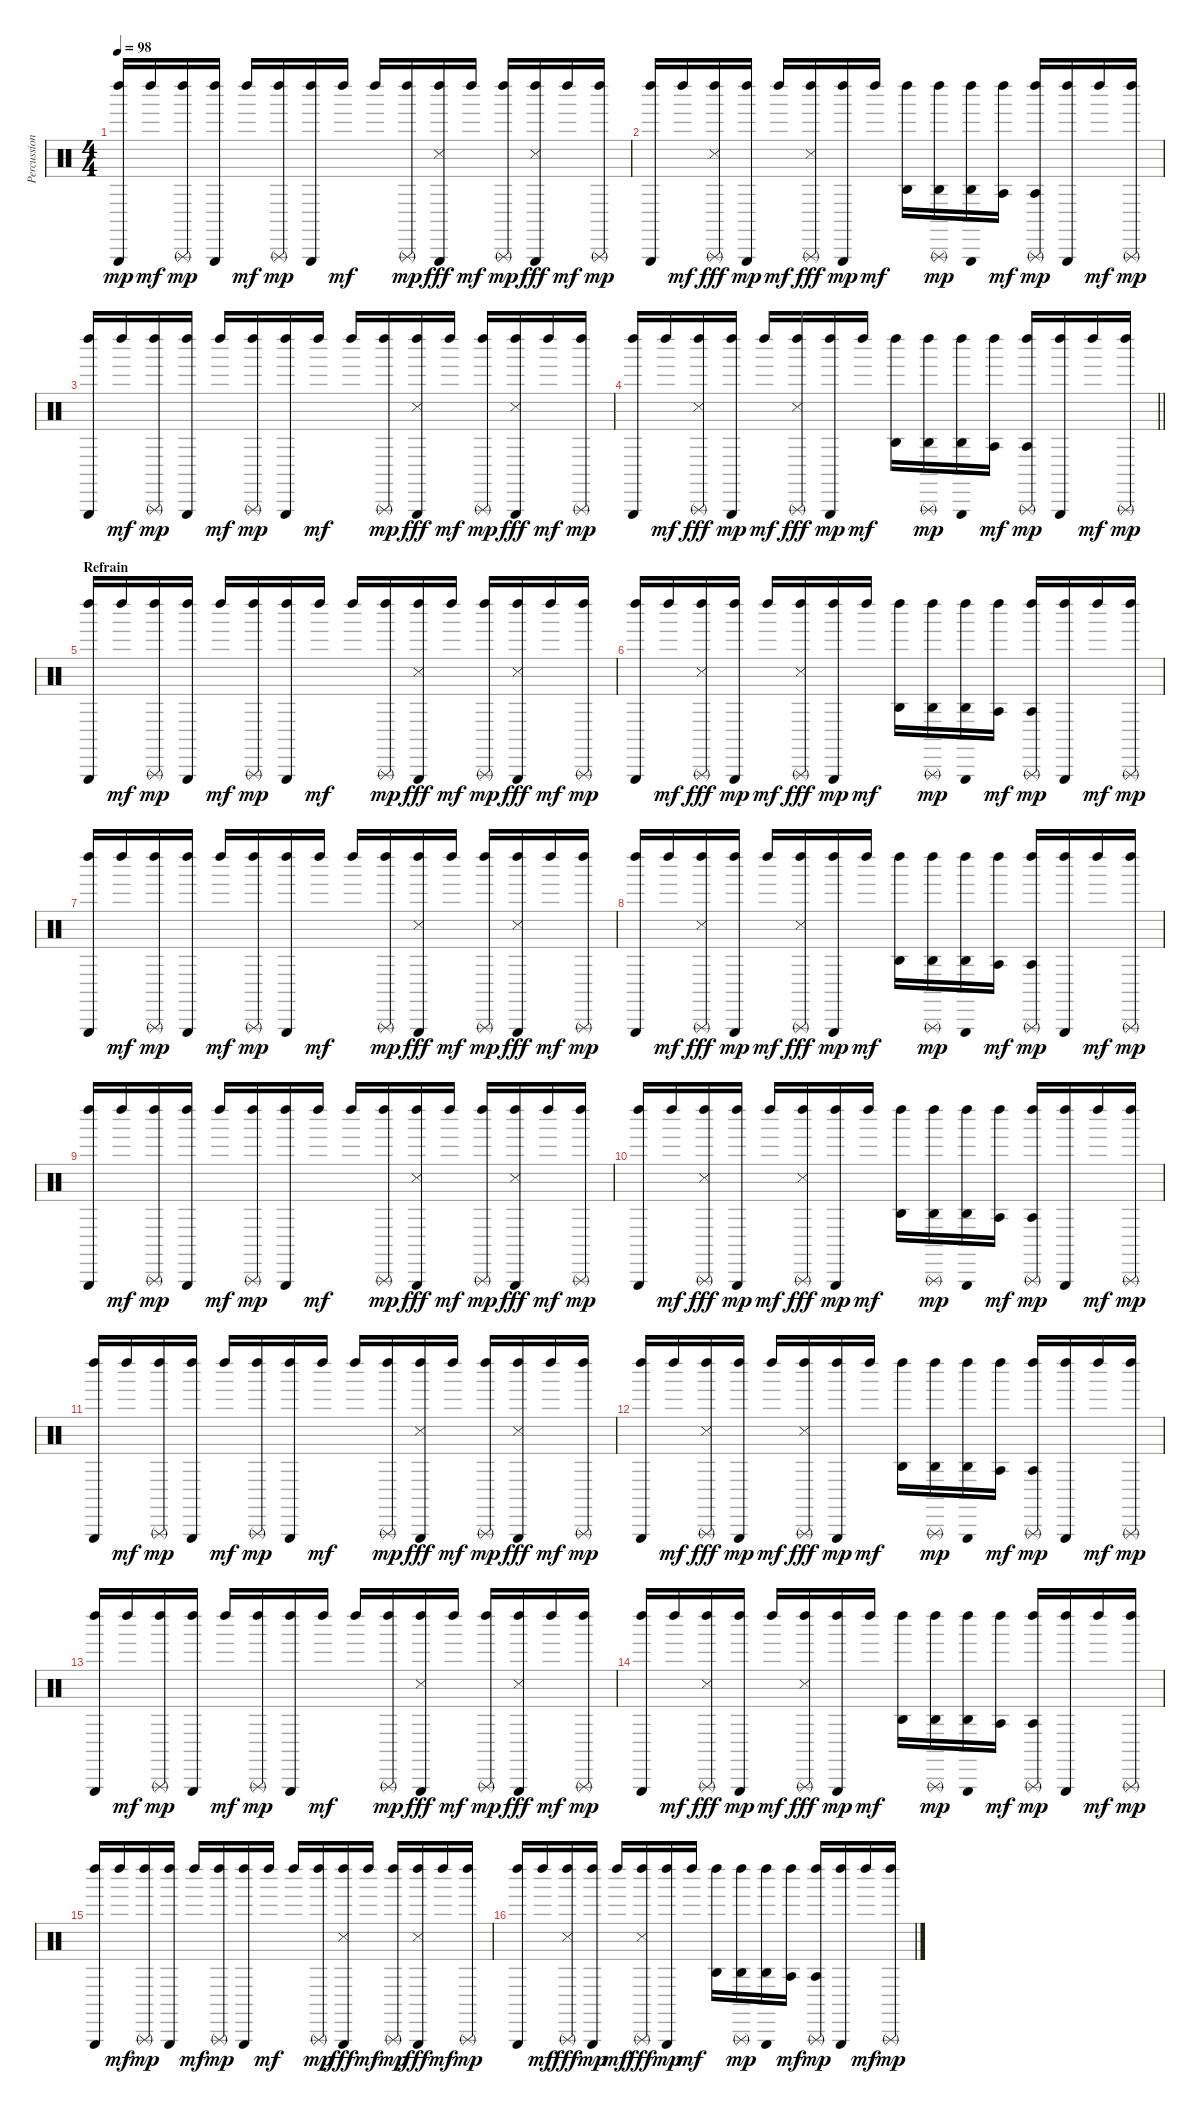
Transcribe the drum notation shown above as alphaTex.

\track ("Percussions (Dr-0)" "Percussion") {instrument percussion}
\staff {score}
\articulation defaults
\ts (4 4)
\tempo 98
\clef neutral
\ks c
("Left Maraca (hit)" "Triangle (hit)").16{dy mp} "Left Maraca (hit)".16{dy mf} ("Left Maraca (hit)" "Triangle (rnute)").16{dy mp} ("Left Maraca (hit)" "Triangle (hit)").16 "Left Maraca (hit)".16{dy mf} ("Left Maraca (hit)" "Triangle (rnute)").16{dy mp} ("Left Maraca (hit)" "Triangle (hit)").16 "Left Maraca (hit)".16{dy mf} "Left Maraca (hit)".16 ("Left Maraca (hit)" "Triangle (rnute)").16{dy mp} ("Left Maraca (hit)" "Triangle (hit)" "Snare (side stick) 3").16{dy fff} "Left Maraca (hit)".16{dy mf} ("Left Maraca (hit)" "Triangle (rnute)").16{dy mp} ("Left Maraca (hit)" "Triangle (hit)" "Snare (side stick) 3").16{dy fff} "Left Maraca (hit)".16{dy mf} ("Left Maraca (hit)" "Triangle (rnute)").16{dy mp} |
("Left Maraca (hit)" "Triangle (hit)").16 "Left Maraca (hit)".16{dy mf} ("Left Maraca (hit)" "Triangle (rnute)" "Snare (side stick) 3").16{dy fff} ("Left Maraca (hit)" "Triangle (hit)").16{dy mp} "Left Maraca (hit)".16{dy mf} ("Left Maraca (hit)" "Triangle (rnute)" "Snare (side stick) 3").16{dy fff} ("Left Maraca (hit)" "Triangle (hit)").16{dy mp} "Left Maraca (hit)".16{dy mf} ("Left Maraca (hit)" "Agogo high (hit)").16 ("Left Maraca (hit)" "Triangle (rnute)" "Agogo high (hit)").16{dy mp} ("Left Maraca (hit)" "Triangle (hit)" "Agogo high (hit)").16 ("Left Maraca (hit)" "Agogo tow (hit)").16{dy mf} ("Left Maraca (hit)" "Triangle (rnute)" "Agogo tow (hit)").16{dy mp} ("Left Maraca (hit)" "Triangle (hit)").16 "Left Maraca (hit)".16{dy mf} ("Left Maraca (hit)" "Triangle (rnute)").16{dy mp} |
("Left Maraca (hit)" "Triangle (hit)").16 "Left Maraca (hit)".16{dy mf} ("Left Maraca (hit)" "Triangle (rnute)").16{dy mp} ("Left Maraca (hit)" "Triangle (hit)").16 "Left Maraca (hit)".16{dy mf} ("Left Maraca (hit)" "Triangle (rnute)").16{dy mp} ("Left Maraca (hit)" "Triangle (hit)").16 "Left Maraca (hit)".16{dy mf} "Left Maraca (hit)".16 ("Left Maraca (hit)" "Triangle (rnute)").16{dy mp} ("Left Maraca (hit)" "Triangle (hit)" "Snare (side stick) 3").16{dy fff} "Left Maraca (hit)".16{dy mf} ("Left Maraca (hit)" "Triangle (rnute)").16{dy mp} ("Left Maraca (hit)" "Triangle (hit)" "Snare (side stick) 3").16{dy fff} "Left Maraca (hit)".16{dy mf} ("Left Maraca (hit)" "Triangle (rnute)").16{dy mp} |
\barLineRight lightlight
("Left Maraca (hit)" "Triangle (hit)").16 "Left Maraca (hit)".16{dy mf} ("Left Maraca (hit)" "Triangle (rnute)" "Snare (side stick) 3").16{dy fff} ("Left Maraca (hit)" "Triangle (hit)").16{dy mp} "Left Maraca (hit)".16{dy mf} ("Left Maraca (hit)" "Triangle (rnute)" "Snare (side stick) 3").16{dy fff} ("Left Maraca (hit)" "Triangle (hit)").16{dy mp} "Left Maraca (hit)".16{dy mf} ("Left Maraca (hit)" "Agogo high (hit)").16 ("Left Maraca (hit)" "Triangle (rnute)" "Agogo high (hit)").16{dy mp} ("Left Maraca (hit)" "Triangle (hit)" "Agogo high (hit)").16 ("Left Maraca (hit)" "Agogo tow (hit)").16{dy mf} ("Left Maraca (hit)" "Triangle (rnute)" "Agogo tow (hit)").16{dy mp} ("Left Maraca (hit)" "Triangle (hit)").16 "Left Maraca (hit)".16{dy mf} ("Left Maraca (hit)" "Triangle (rnute)").16{dy mp} |
\section ("" "Refrain")
("Left Maraca (hit)" "Triangle (hit)").16 "Left Maraca (hit)".16{dy mf} ("Left Maraca (hit)" "Triangle (rnute)").16{dy mp} ("Left Maraca (hit)" "Triangle (hit)").16 "Left Maraca (hit)".16{dy mf} ("Left Maraca (hit)" "Triangle (rnute)").16{dy mp} ("Left Maraca (hit)" "Triangle (hit)").16 "Left Maraca (hit)".16{dy mf} "Left Maraca (hit)".16 ("Left Maraca (hit)" "Triangle (rnute)").16{dy mp} ("Left Maraca (hit)" "Triangle (hit)" "Snare (side stick) 3").16{dy fff} "Left Maraca (hit)".16{dy mf} ("Left Maraca (hit)" "Triangle (rnute)").16{dy mp} ("Left Maraca (hit)" "Triangle (hit)" "Snare (side stick) 3").16{dy fff} "Left Maraca (hit)".16{dy mf} ("Left Maraca (hit)" "Triangle (rnute)").16{dy mp} |
("Left Maraca (hit)" "Triangle (hit)").16 "Left Maraca (hit)".16{dy mf} ("Left Maraca (hit)" "Triangle (rnute)" "Snare (side stick) 3").16{dy fff} ("Left Maraca (hit)" "Triangle (hit)").16{dy mp} "Left Maraca (hit)".16{dy mf} ("Left Maraca (hit)" "Triangle (rnute)" "Snare (side stick) 3").16{dy fff} ("Left Maraca (hit)" "Triangle (hit)").16{dy mp} "Left Maraca (hit)".16{dy mf} ("Left Maraca (hit)" "Agogo high (hit)").16 ("Left Maraca (hit)" "Triangle (rnute)" "Agogo high (hit)").16{dy mp} ("Left Maraca (hit)" "Triangle (hit)" "Agogo high (hit)").16 ("Left Maraca (hit)" "Agogo tow (hit)").16{dy mf} ("Left Maraca (hit)" "Triangle (rnute)" "Agogo tow (hit)").16{dy mp} ("Left Maraca (hit)" "Triangle (hit)").16 "Left Maraca (hit)".16{dy mf} ("Left Maraca (hit)" "Triangle (rnute)").16{dy mp} |
("Left Maraca (hit)" "Triangle (hit)").16 "Left Maraca (hit)".16{dy mf} ("Left Maraca (hit)" "Triangle (rnute)").16{dy mp} ("Left Maraca (hit)" "Triangle (hit)").16 "Left Maraca (hit)".16{dy mf} ("Left Maraca (hit)" "Triangle (rnute)").16{dy mp} ("Left Maraca (hit)" "Triangle (hit)").16 "Left Maraca (hit)".16{dy mf} "Left Maraca (hit)".16 ("Left Maraca (hit)" "Triangle (rnute)").16{dy mp} ("Left Maraca (hit)" "Triangle (hit)" "Snare (side stick) 3").16{dy fff} "Left Maraca (hit)".16{dy mf} ("Left Maraca (hit)" "Triangle (rnute)").16{dy mp} ("Left Maraca (hit)" "Triangle (hit)" "Snare (side stick) 3").16{dy fff} "Left Maraca (hit)".16{dy mf} ("Left Maraca (hit)" "Triangle (rnute)").16{dy mp} |
("Left Maraca (hit)" "Triangle (hit)").16 "Left Maraca (hit)".16{dy mf} ("Left Maraca (hit)" "Triangle (rnute)" "Snare (side stick) 3").16{dy fff} ("Left Maraca (hit)" "Triangle (hit)").16{dy mp} "Left Maraca (hit)".16{dy mf} ("Left Maraca (hit)" "Triangle (rnute)" "Snare (side stick) 3").16{dy fff} ("Left Maraca (hit)" "Triangle (hit)").16{dy mp} "Left Maraca (hit)".16{dy mf} ("Left Maraca (hit)" "Agogo high (hit)").16 ("Left Maraca (hit)" "Triangle (rnute)" "Agogo high (hit)").16{dy mp} ("Left Maraca (hit)" "Triangle (hit)" "Agogo high (hit)").16 ("Left Maraca (hit)" "Agogo tow (hit)").16{dy mf} ("Left Maraca (hit)" "Triangle (rnute)" "Agogo tow (hit)").16{dy mp} ("Left Maraca (hit)" "Triangle (hit)").16 "Left Maraca (hit)".16{dy mf} ("Left Maraca (hit)" "Triangle (rnute)").16{dy mp} |
("Left Maraca (hit)" "Triangle (hit)").16 "Left Maraca (hit)".16{dy mf} ("Left Maraca (hit)" "Triangle (rnute)").16{dy mp} ("Left Maraca (hit)" "Triangle (hit)").16 "Left Maraca (hit)".16{dy mf} ("Left Maraca (hit)" "Triangle (rnute)").16{dy mp} ("Left Maraca (hit)" "Triangle (hit)").16 "Left Maraca (hit)".16{dy mf} "Left Maraca (hit)".16 ("Left Maraca (hit)" "Triangle (rnute)").16{dy mp} ("Left Maraca (hit)" "Triangle (hit)" "Snare (side stick) 3").16{dy fff} "Left Maraca (hit)".16{dy mf} ("Left Maraca (hit)" "Triangle (rnute)").16{dy mp} ("Left Maraca (hit)" "Triangle (hit)" "Snare (side stick) 3").16{dy fff} "Left Maraca (hit)".16{dy mf} ("Left Maraca (hit)" "Triangle (rnute)").16{dy mp} |
("Left Maraca (hit)" "Triangle (hit)").16 "Left Maraca (hit)".16{dy mf} ("Left Maraca (hit)" "Triangle (rnute)" "Snare (side stick) 3").16{dy fff} ("Left Maraca (hit)" "Triangle (hit)").16{dy mp} "Left Maraca (hit)".16{dy mf} ("Left Maraca (hit)" "Triangle (rnute)" "Snare (side stick) 3").16{dy fff} ("Left Maraca (hit)" "Triangle (hit)").16{dy mp} "Left Maraca (hit)".16{dy mf} ("Left Maraca (hit)" "Agogo high (hit)").16 ("Left Maraca (hit)" "Triangle (rnute)" "Agogo high (hit)").16{dy mp} ("Left Maraca (hit)" "Triangle (hit)" "Agogo high (hit)").16 ("Left Maraca (hit)" "Agogo tow (hit)").16{dy mf} ("Left Maraca (hit)" "Triangle (rnute)" "Agogo tow (hit)").16{dy mp} ("Left Maraca (hit)" "Triangle (hit)").16 "Left Maraca (hit)".16{dy mf} ("Left Maraca (hit)" "Triangle (rnute)").16{dy mp} |
("Left Maraca (hit)" "Triangle (hit)").16 "Left Maraca (hit)".16{dy mf} ("Left Maraca (hit)" "Triangle (rnute)").16{dy mp} ("Left Maraca (hit)" "Triangle (hit)").16 "Left Maraca (hit)".16{dy mf} ("Left Maraca (hit)" "Triangle (rnute)").16{dy mp} ("Left Maraca (hit)" "Triangle (hit)").16 "Left Maraca (hit)".16{dy mf} "Left Maraca (hit)".16 ("Left Maraca (hit)" "Triangle (rnute)").16{dy mp} ("Left Maraca (hit)" "Triangle (hit)" "Snare (side stick) 3").16{dy fff} "Left Maraca (hit)".16{dy mf} ("Left Maraca (hit)" "Triangle (rnute)").16{dy mp} ("Left Maraca (hit)" "Triangle (hit)" "Snare (side stick) 3").16{dy fff} "Left Maraca (hit)".16{dy mf} ("Left Maraca (hit)" "Triangle (rnute)").16{dy mp} |
("Left Maraca (hit)" "Triangle (hit)").16 "Left Maraca (hit)".16{dy mf} ("Left Maraca (hit)" "Triangle (rnute)" "Snare (side stick) 3").16{dy fff} ("Left Maraca (hit)" "Triangle (hit)").16{dy mp} "Left Maraca (hit)".16{dy mf} ("Left Maraca (hit)" "Triangle (rnute)" "Snare (side stick) 3").16{dy fff} ("Left Maraca (hit)" "Triangle (hit)").16{dy mp} "Left Maraca (hit)".16{dy mf} ("Left Maraca (hit)" "Agogo high (hit)").16 ("Left Maraca (hit)" "Triangle (rnute)" "Agogo high (hit)").16{dy mp} ("Left Maraca (hit)" "Triangle (hit)" "Agogo high (hit)").16 ("Left Maraca (hit)" "Agogo tow (hit)").16{dy mf} ("Left Maraca (hit)" "Triangle (rnute)" "Agogo tow (hit)").16{dy mp} ("Left Maraca (hit)" "Triangle (hit)").16 "Left Maraca (hit)".16{dy mf} ("Left Maraca (hit)" "Triangle (rnute)").16{dy mp} |
("Left Maraca (hit)" "Triangle (hit)").16 "Left Maraca (hit)".16{dy mf} ("Left Maraca (hit)" "Triangle (rnute)").16{dy mp} ("Left Maraca (hit)" "Triangle (hit)").16 "Left Maraca (hit)".16{dy mf} ("Left Maraca (hit)" "Triangle (rnute)").16{dy mp} ("Left Maraca (hit)" "Triangle (hit)").16 "Left Maraca (hit)".16{dy mf} "Left Maraca (hit)".16 ("Left Maraca (hit)" "Triangle (rnute)").16{dy mp} ("Left Maraca (hit)" "Triangle (hit)" "Snare (side stick) 3").16{dy fff} "Left Maraca (hit)".16{dy mf} ("Left Maraca (hit)" "Triangle (rnute)").16{dy mp} ("Left Maraca (hit)" "Triangle (hit)" "Snare (side stick) 3").16{dy fff} "Left Maraca (hit)".16{dy mf} ("Left Maraca (hit)" "Triangle (rnute)").16{dy mp} |
("Left Maraca (hit)" "Triangle (hit)").16 "Left Maraca (hit)".16{dy mf} ("Left Maraca (hit)" "Triangle (rnute)" "Snare (side stick) 3").16{dy fff} ("Left Maraca (hit)" "Triangle (hit)").16{dy mp} "Left Maraca (hit)".16{dy mf} ("Left Maraca (hit)" "Triangle (rnute)" "Snare (side stick) 3").16{dy fff} ("Left Maraca (hit)" "Triangle (hit)").16{dy mp} "Left Maraca (hit)".16{dy mf} ("Left Maraca (hit)" "Agogo high (hit)").16 ("Left Maraca (hit)" "Triangle (rnute)" "Agogo high (hit)").16{dy mp} ("Left Maraca (hit)" "Triangle (hit)" "Agogo high (hit)").16 ("Left Maraca (hit)" "Agogo tow (hit)").16{dy mf} ("Left Maraca (hit)" "Triangle (rnute)" "Agogo tow (hit)").16{dy mp} ("Left Maraca (hit)" "Triangle (hit)").16 "Left Maraca (hit)".16{dy mf} ("Left Maraca (hit)" "Triangle (rnute)").16{dy mp} |
("Left Maraca (hit)" "Triangle (hit)").16 "Left Maraca (hit)".16{dy mf} ("Left Maraca (hit)" "Triangle (rnute)").16{dy mp} ("Left Maraca (hit)" "Triangle (hit)").16 "Left Maraca (hit)".16{dy mf} ("Left Maraca (hit)" "Triangle (rnute)").16{dy mp} ("Left Maraca (hit)" "Triangle (hit)").16 "Left Maraca (hit)".16{dy mf} "Left Maraca (hit)".16 ("Left Maraca (hit)" "Triangle (rnute)").16{dy mp} ("Left Maraca (hit)" "Triangle (hit)" "Snare (side stick) 3").16{dy fff} "Left Maraca (hit)".16{dy mf} ("Left Maraca (hit)" "Triangle (rnute)").16{dy mp} ("Left Maraca (hit)" "Triangle (hit)" "Snare (side stick) 3").16{dy fff} "Left Maraca (hit)".16{dy mf} ("Left Maraca (hit)" "Triangle (rnute)").16{dy mp} |
("Left Maraca (hit)" "Triangle (hit)").16 "Left Maraca (hit)".16{dy mf} ("Left Maraca (hit)" "Triangle (rnute)" "Snare (side stick) 3").16{dy fff} ("Left Maraca (hit)" "Triangle (hit)").16{dy mp} "Left Maraca (hit)".16{dy mf} ("Left Maraca (hit)" "Triangle (rnute)" "Snare (side stick) 3").16{dy fff} ("Left Maraca (hit)" "Triangle (hit)").16{dy mp} "Left Maraca (hit)".16{dy mf} ("Left Maraca (hit)" "Agogo high (hit)").16 ("Left Maraca (hit)" "Triangle (rnute)" "Agogo high (hit)").16{dy mp} ("Left Maraca (hit)" "Triangle (hit)" "Agogo high (hit)").16 ("Left Maraca (hit)" "Agogo tow (hit)").16{dy mf} ("Left Maraca (hit)" "Triangle (rnute)" "Agogo tow (hit)").16{dy mp} ("Left Maraca (hit)" "Triangle (hit)").16 "Left Maraca (hit)".16{dy mf} ("Left Maraca (hit)" "Triangle (rnute)").16{dy mp}
